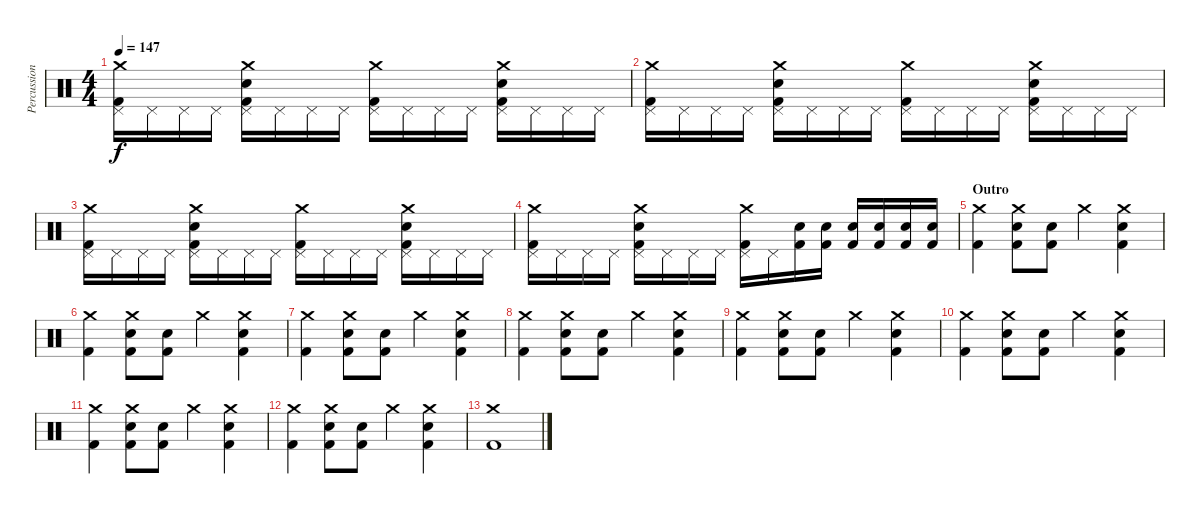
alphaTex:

\track ("Percussions" "Percussion") {instrument percussion}
\staff {score}
\articulation defaults
\ts (4 4)
\tempo 147
\clef neutral
\ks c
("Crash medium (hit)" "Pedal Hi-Hat (hit)" "Kick (hit) 2").16{dy f} "Pedal Hi-Hat (hit)".16 "Pedal Hi-Hat (hit)".16 "Pedal Hi-Hat (hit)".16 ("Crash medium (hit)" "Pedal Hi-Hat (hit)" "Electric Snare (hit)" "Kick (hit) 2").16 "Pedal Hi-Hat (hit)".16 "Pedal Hi-Hat (hit)".16 "Pedal Hi-Hat (hit)".16 ("Crash medium (hit)" "Pedal Hi-Hat (hit)" "Kick (hit) 2").16 "Pedal Hi-Hat (hit)".16 "Pedal Hi-Hat (hit)".16 "Pedal Hi-Hat (hit)".16 ("Crash medium (hit)" "Pedal Hi-Hat (hit)" "Electric Snare (hit)" "Kick (hit) 2").16 "Pedal Hi-Hat (hit)".16 "Pedal Hi-Hat (hit)".16 "Pedal Hi-Hat (hit)".16 |
("Crash medium (hit)" "Pedal Hi-Hat (hit)" "Kick (hit) 2").16 "Pedal Hi-Hat (hit)".16 "Pedal Hi-Hat (hit)".16 "Pedal Hi-Hat (hit)".16 ("Crash medium (hit)" "Pedal Hi-Hat (hit)" "Electric Snare (hit)" "Kick (hit) 2").16 "Pedal Hi-Hat (hit)".16 "Pedal Hi-Hat (hit)".16 "Pedal Hi-Hat (hit)".16 ("Crash medium (hit)" "Pedal Hi-Hat (hit)" "Kick (hit) 2").16 "Pedal Hi-Hat (hit)".16 "Pedal Hi-Hat (hit)".16 "Pedal Hi-Hat (hit)".16 ("Crash medium (hit)" "Pedal Hi-Hat (hit)" "Electric Snare (hit)" "Kick (hit) 2").16 "Pedal Hi-Hat (hit)".16 "Pedal Hi-Hat (hit)".16 "Pedal Hi-Hat (hit)".16 |
("Crash medium (hit)" "Pedal Hi-Hat (hit)" "Kick (hit) 2").16 "Pedal Hi-Hat (hit)".16 "Pedal Hi-Hat (hit)".16 "Pedal Hi-Hat (hit)".16 ("Crash medium (hit)" "Pedal Hi-Hat (hit)" "Electric Snare (hit)" "Kick (hit) 2").16 "Pedal Hi-Hat (hit)".16 "Pedal Hi-Hat (hit)".16 "Pedal Hi-Hat (hit)".16 ("Crash medium (hit)" "Pedal Hi-Hat (hit)" "Kick (hit) 2").16 "Pedal Hi-Hat (hit)".16 "Pedal Hi-Hat (hit)".16 "Pedal Hi-Hat (hit)".16 ("Crash medium (hit)" "Pedal Hi-Hat (hit)" "Electric Snare (hit)" "Kick (hit) 2").16 "Pedal Hi-Hat (hit)".16 "Pedal Hi-Hat (hit)".16 "Pedal Hi-Hat (hit)".16 |
("Crash medium (hit)" "Pedal Hi-Hat (hit)" "Kick (hit) 2").16 "Pedal Hi-Hat (hit)".16 "Pedal Hi-Hat (hit)".16 "Pedal Hi-Hat (hit)".16 ("Crash medium (hit)" "Pedal Hi-Hat (hit)" "Electric Snare (hit)" "Kick (hit) 2").16 "Pedal Hi-Hat (hit)".16 "Pedal Hi-Hat (hit)".16 "Pedal Hi-Hat (hit)".16 ("Crash medium (hit)" "Pedal Hi-Hat (hit)" "Kick (hit) 2").16 "Pedal Hi-Hat (hit)".16 ("Electric Snare (hit)" "Kick (hit) 2").16 ("Electric Snare (hit)" "Kick (hit) 2").16 ("Electric Snare (hit)" "Kick (hit) 2").16 ("Electric Snare (hit)" "Kick (hit) 2").16 ("Electric Snare (hit)" "Kick (hit) 2").16 ("Electric Snare (hit)" "Kick (hit) 2").16 |
\section ("" "Outro")
("Crash medium (hit)" "Kick (hit) 2").4 ("Crash medium (hit)" "Electric Snare (hit)" "Kick (hit) 2").8 ("Electric Snare (hit)" "Kick (hit) 2").8 "Crash medium (hit)".4 ("Crash medium (hit)" "Electric Snare (hit)" "Kick (hit) 2").4 |
("Crash medium (hit)" "Kick (hit) 2").4 ("Crash medium (hit)" "Electric Snare (hit)" "Kick (hit) 2").8 ("Electric Snare (hit)" "Kick (hit) 2").8 "Crash medium (hit)".4 ("Crash medium (hit)" "Electric Snare (hit)" "Kick (hit) 2").4 |
("Crash medium (hit)" "Kick (hit) 2").4 ("Crash medium (hit)" "Electric Snare (hit)" "Kick (hit) 2").8 ("Electric Snare (hit)" "Kick (hit) 2").8 "Crash medium (hit)".4 ("Crash medium (hit)" "Electric Snare (hit)" "Kick (hit) 2").4 |
("Crash medium (hit)" "Kick (hit) 2").4 ("Crash medium (hit)" "Electric Snare (hit)" "Kick (hit) 2").8 ("Electric Snare (hit)" "Kick (hit) 2").8 "Crash medium (hit)".4 ("Crash medium (hit)" "Electric Snare (hit)" "Kick (hit) 2").4 |
("Crash medium (hit)" "Kick (hit) 2").4 ("Crash medium (hit)" "Electric Snare (hit)" "Kick (hit) 2").8 ("Electric Snare (hit)" "Kick (hit) 2").8 "Crash medium (hit)".4 ("Crash medium (hit)" "Electric Snare (hit)" "Kick (hit) 2").4 |
("Crash medium (hit)" "Kick (hit) 2").4 ("Crash medium (hit)" "Electric Snare (hit)" "Kick (hit) 2").8 ("Electric Snare (hit)" "Kick (hit) 2").8 "Crash medium (hit)".4 ("Crash medium (hit)" "Electric Snare (hit)" "Kick (hit) 2").4 |
("Crash medium (hit)" "Kick (hit) 2").4 ("Crash medium (hit)" "Electric Snare (hit)" "Kick (hit) 2").8 ("Electric Snare (hit)" "Kick (hit) 2").8 "Crash medium (hit)".4 ("Crash medium (hit)" "Electric Snare (hit)" "Kick (hit) 2").4 |
("Crash medium (hit)" "Kick (hit) 2").4 ("Crash medium (hit)" "Electric Snare (hit)" "Kick (hit) 2").8 ("Electric Snare (hit)" "Kick (hit) 2").8 "Crash medium (hit)".4 ("Crash medium (hit)" "Electric Snare (hit)" "Kick (hit) 2").4 |
("Crash medium (hit)" "Kick (hit) 2").1
